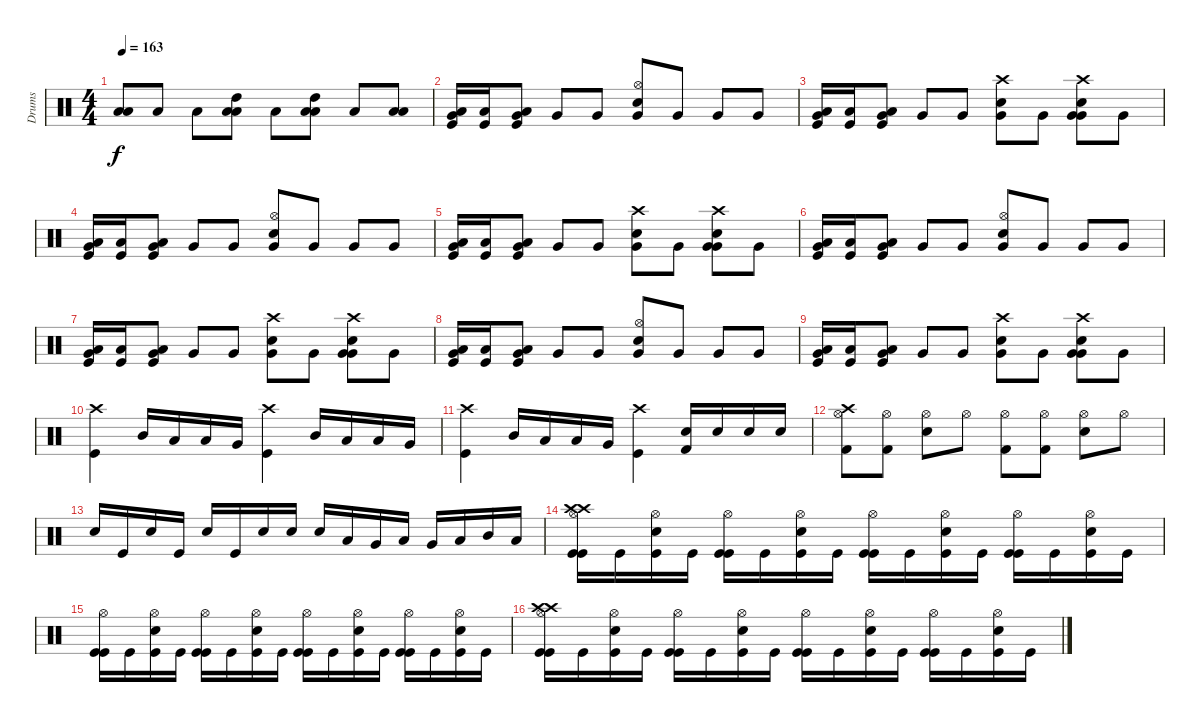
\track ("Drums" "Drums") {instrument percussion}
\staff {score}
\articulation defaults
\ts (4 4)
\tempo 163
\clef neutral
\ks c
("Low Floor Tom (hit)" "Low Tom (hit)").8{dy f} "Low Floor Tom (hit)".8 "Low Floor Tom (hit)".8 ("High Tom (hit)" "Low Tom (hit)" "Low Floor Tom (hit)").8 "Low Floor Tom (hit)".8 ("High Tom (hit)" "Low Tom (hit)" "Low Floor Tom (hit)").8 "Low Floor Tom (hit)".8 ("Low Tom (hit)" "Low Floor Tom (hit)").8 |
("Very Low Tom (hit)" "Low Floor Tom (hit)" "Kick (hit)").16 ("Low Floor Tom (hit)" "Kick (hit)").16 ("Very Low Tom (hit)" "Low Floor Tom (hit)" "Kick (hit)").8 "Very Low Tom (hit)".8 "Very Low Tom (hit)".8 ("Hi-Hat (open)" "Snare (hit) 2" "Very Low Tom (hit)").8 "Very Low Tom (hit)".8 "Very Low Tom (hit)".8 "Very Low Tom (hit)".8 |
("Very Low Tom (hit)" "Low Floor Tom (hit)" "Kick (hit)").16 ("Low Floor Tom (hit)" "Kick (hit)").16 ("Very Low Tom (hit)" "Low Floor Tom (hit)" "Kick (hit)").8 "Very Low Tom (hit)".8 "Very Low Tom (hit)".8 ("Crash high (hit)" "Snare (hit) 2" "Very Low Tom (hit)").8 "Very Low Tom (hit)".8 ("Snare (hit) 2" "Crash high (hit)" "Very Low Tom (hit)" "Very Low Tom (hit)").8 "Very Low Tom (hit)".8 |
("Very Low Tom (hit)" "Low Floor Tom (hit)" "Kick (hit)").16 ("Low Floor Tom (hit)" "Kick (hit)").16 ("Very Low Tom (hit)" "Low Floor Tom (hit)" "Kick (hit)").8 "Very Low Tom (hit)".8 "Very Low Tom (hit)".8 ("Hi-Hat (open)" "Snare (hit) 2" "Very Low Tom (hit)").8 "Very Low Tom (hit)".8 "Very Low Tom (hit)".8 "Very Low Tom (hit)".8 |
("Very Low Tom (hit)" "Low Floor Tom (hit)" "Kick (hit)").16 ("Low Floor Tom (hit)" "Kick (hit)").16 ("Very Low Tom (hit)" "Low Floor Tom (hit)" "Kick (hit)").8 "Very Low Tom (hit)".8 "Very Low Tom (hit)".8 ("Crash high (hit)" "Snare (hit) 2" "Very Low Tom (hit)").8 "Very Low Tom (hit)".8 ("Snare (hit) 2" "Crash high (hit)" "Very Low Tom (hit)" "Very Low Tom (hit)").8 "Very Low Tom (hit)".8 |
("Very Low Tom (hit)" "Low Floor Tom (hit)" "Kick (hit)").16 ("Low Floor Tom (hit)" "Kick (hit)").16 ("Very Low Tom (hit)" "Low Floor Tom (hit)" "Kick (hit)").8 "Very Low Tom (hit)".8 "Very Low Tom (hit)".8 ("Hi-Hat (open)" "Snare (hit) 2" "Very Low Tom (hit)").8 "Very Low Tom (hit)".8 "Very Low Tom (hit)".8 "Very Low Tom (hit)".8 |
("Very Low Tom (hit)" "Low Floor Tom (hit)" "Kick (hit)").16 ("Low Floor Tom (hit)" "Kick (hit)").16 ("Very Low Tom (hit)" "Low Floor Tom (hit)" "Kick (hit)").8 "Very Low Tom (hit)".8 "Very Low Tom (hit)".8 ("Crash high (hit)" "Snare (hit) 2" "Very Low Tom (hit)").8 "Very Low Tom (hit)".8 ("Snare (hit) 2" "Crash high (hit)" "Very Low Tom (hit)" "Very Low Tom (hit)").8 "Very Low Tom (hit)".8 |
("Very Low Tom (hit)" "Low Floor Tom (hit)" "Kick (hit)").16 ("Low Floor Tom (hit)" "Kick (hit)").16 ("Very Low Tom (hit)" "Low Floor Tom (hit)" "Kick (hit)").8 "Very Low Tom (hit)".8 "Very Low Tom (hit)".8 ("Hi-Hat (open)" "Snare (hit) 2" "Very Low Tom (hit)").8 "Very Low Tom (hit)".8 "Very Low Tom (hit)".8 "Very Low Tom (hit)".8 |
("Very Low Tom (hit)" "Low Floor Tom (hit)" "Kick (hit)").16 ("Low Floor Tom (hit)" "Kick (hit)").16 ("Very Low Tom (hit)" "Low Floor Tom (hit)" "Kick (hit)").8 "Very Low Tom (hit)".8 "Very Low Tom (hit)".8 ("Crash high (hit)" "Snare (hit) 2" "Very Low Tom (hit)").8 "Very Low Tom (hit)".8 ("Snare (hit) 2" "Crash high (hit)" "Very Low Tom (hit)" "Very Low Tom (hit)").8 "Very Low Tom (hit)".8 |
("Crash high (hit)" "Kick (hit)").4 "Mid Tom (hit)".16 "Low Tom (hit)".16 "Low Tom (hit)".16 "Very Low Tom (hit)".16 ("Crash high (hit)" "Kick (hit)").4 "Mid Tom (hit)".16 "Low Tom (hit)".16 "Low Tom (hit)".16 "Very Low Tom (hit)".16 |
("Crash high (hit)" "Kick (hit)").4 "Mid Tom (hit)".16 "Low Tom (hit)".16 "Low Tom (hit)".16 "Very Low Tom (hit)".16 ("Crash high (hit)" "Kick (hit)").4 ("Electric Snare (hit)" "Kick (hit) 2").16 "Electric Snare (hit)".16 "Electric Snare (hit)".16 "Electric Snare (hit)".16 |
("Crash high (hit)" "Hi-Hat (open)" "Kick (hit) 2").8 ("Hi-Hat (open)" "Kick (hit) 2").8 ("Hi-Hat (open)" "Electric Snare (hit)").8 "Hi-Hat (open)".8 ("Hi-Hat (open)" "Kick (hit) 2").8 ("Hi-Hat (open)" "Kick (hit) 2").8 ("Hi-Hat (open)" "Electric Snare (hit)").8 "Hi-Hat (open)".8 |
"Snare (hit) 2".16 "Kick (hit)".16 "Snare (hit) 2".16 "Kick (hit)".16 "Snare (hit) 2".16 "Kick (hit)".16 "Snare (hit) 2".16 "Snare (hit) 2".16 "Snare (hit) 2".16 "Low Tom (hit)".16 "Very Low Tom (hit)".16 "Low Floor Tom (hit)".16 "Very Low Tom (hit)".16 "Low Floor Tom (hit)".16 "Mid Tom (hit)".16 "Low Floor Tom (hit)".16 |
("Crash high (hit)" "Crash high (hit)" "Hi-Hat (open)" "Kick (hit)" "Kick (hit)").16 "Kick (hit)".16 ("Electric Snare (hit)" "Kick (hit)" "Hi-Hat (open)").16 "Kick (hit)".16 ("Hi-Hat (open)" "Kick (hit)" "Kick (hit)").16 "Kick (hit)".16 ("Electric Snare (hit)" "Kick (hit)" "Hi-Hat (open)").16 "Kick (hit)".16 ("Hi-Hat (open)" "Kick (hit)" "Kick (hit)").16 "Kick (hit)".16 ("Electric Snare (hit)" "Kick (hit)" "Hi-Hat (open)").16 "Kick (hit)".16 ("Hi-Hat (open)" "Kick (hit)" "Kick (hit)").16 "Kick (hit)".16 ("Electric Snare (hit)" "Kick (hit)" "Hi-Hat (open)").16 "Kick (hit)".16 |
("Hi-Hat (open)" "Kick (hit)" "Kick (hit)").16 "Kick (hit)".16 ("Electric Snare (hit)" "Kick (hit)" "Hi-Hat (open)").16 "Kick (hit)".16 ("Hi-Hat (open)" "Kick (hit)" "Kick (hit)").16 "Kick (hit)".16 ("Electric Snare (hit)" "Kick (hit)" "Hi-Hat (open)").16 "Kick (hit)".16 ("Hi-Hat (open)" "Kick (hit)" "Kick (hit)").16 "Kick (hit)".16 ("Electric Snare (hit)" "Kick (hit)" "Hi-Hat (open)").16 "Kick (hit)".16 ("Hi-Hat (open)" "Kick (hit)" "Kick (hit)").16 "Kick (hit)".16 ("Electric Snare (hit)" "Kick (hit)" "Hi-Hat (open)").16 "Kick (hit)".16 |
("Crash high (hit)" "Crash high (hit)" "Hi-Hat (open)" "Kick (hit)" "Kick (hit)").16 "Kick (hit)".16 ("Electric Snare (hit)" "Kick (hit)" "Hi-Hat (open)").16 "Kick (hit)".16 ("Hi-Hat (open)" "Kick (hit)" "Kick (hit)").16 "Kick (hit)".16 ("Electric Snare (hit)" "Kick (hit)" "Hi-Hat (open)").16 "Kick (hit)".16 ("Hi-Hat (open)" "Kick (hit)" "Kick (hit)").16 "Kick (hit)".16 ("Electric Snare (hit)" "Kick (hit)" "Hi-Hat (open)").16 "Kick (hit)".16 ("Hi-Hat (open)" "Kick (hit)" "Kick (hit)").16 "Kick (hit)".16 ("Electric Snare (hit)" "Kick (hit)" "Hi-Hat (open)").16 "Kick (hit)".16
